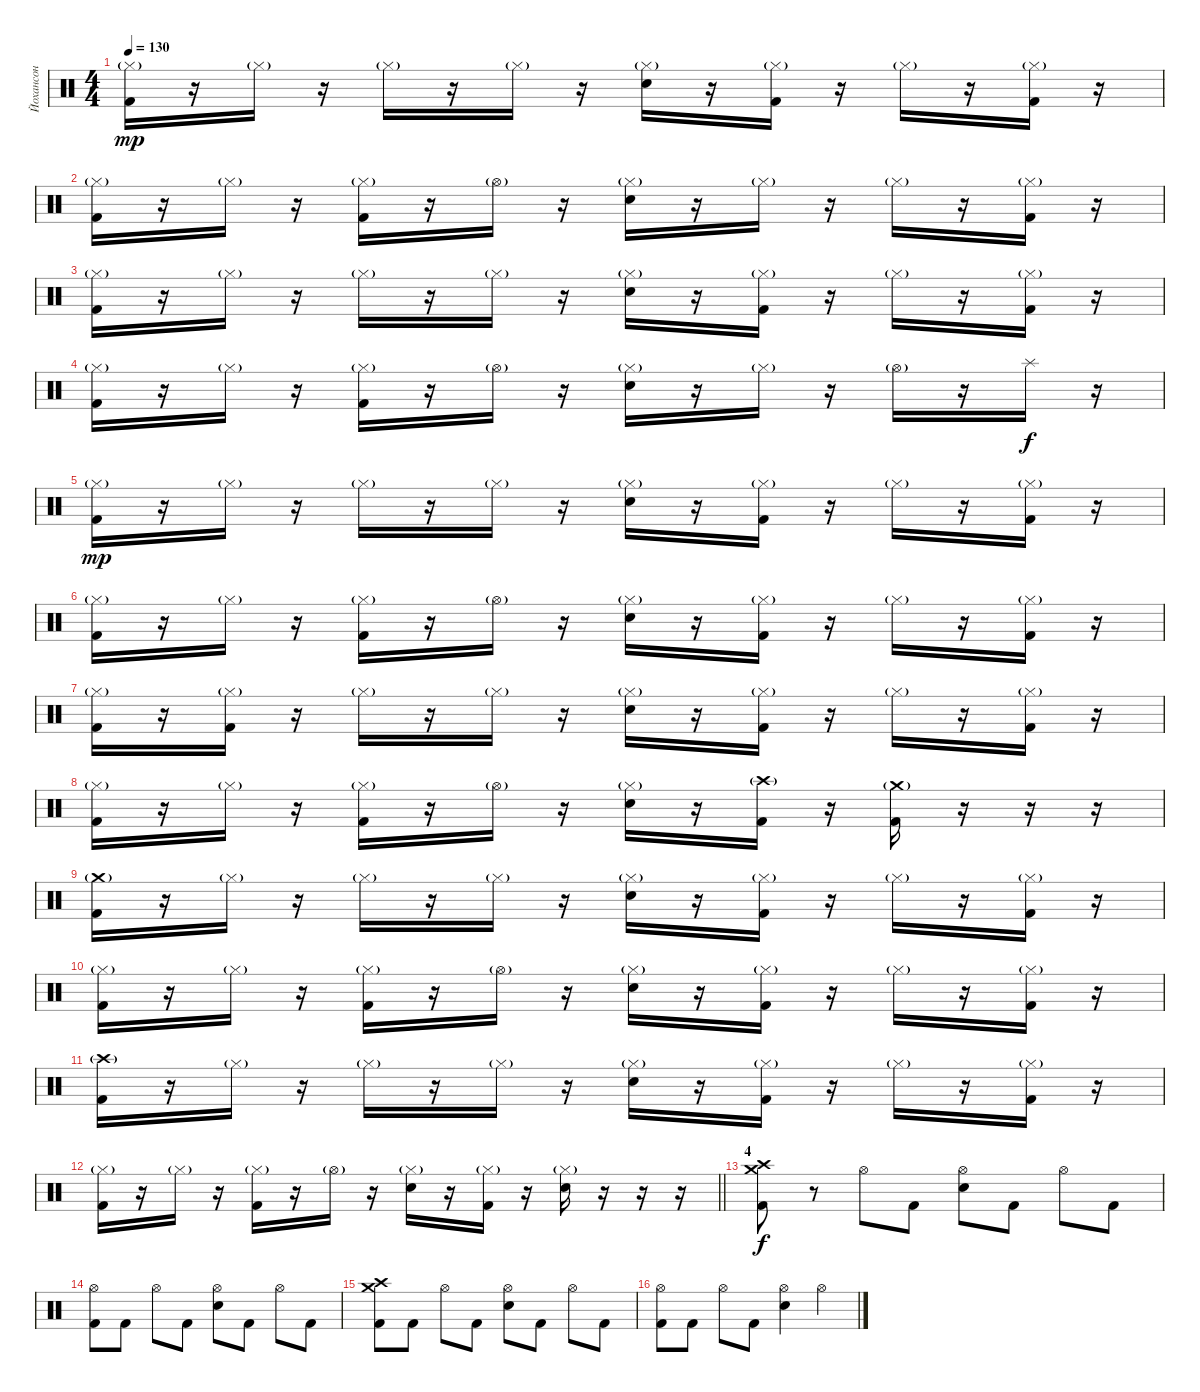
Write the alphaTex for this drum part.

\track ("Йохансон" "Йохансон") {instrument percussion}
\staff {score}
\articulation defaults
\ts (4 4)
\tempo 130
\clef neutral
\ks c
("Hi-Hat (closed)"{g} "Kick (hit) 2").16{dy mp} r.16 "Hi-Hat (closed)"{g}.16 r.16 "Hi-Hat (closed)"{g}.16 r.16 "Hi-Hat (closed)"{g}.16 r.16 ("Hi-Hat (closed)"{g} "Snare (hit) 2").16 r.16 ("Hi-Hat (closed)"{g} "Kick (hit) 2").16 r.16 "Hi-Hat (closed)"{g}.16 r.16 ("Hi-Hat (closed)"{g} "Kick (hit) 2").16 r.16 |
("Hi-Hat (closed)"{g} "Kick (hit) 2").16 r.16 "Hi-Hat (closed)"{g}.16 r.16 ("Hi-Hat (closed)"{g} "Kick (hit) 2").16 r.16 "Hi-Hat (open)"{g}.16 r.16 ("Hi-Hat (closed)"{g} "Snare (hit) 2").16 r.16 "Hi-Hat (closed)"{g}.16 r.16 "Hi-Hat (closed)"{g}.16 r.16 ("Hi-Hat (closed)"{g} "Kick (hit) 2").16 r.16 |
("Hi-Hat (closed)"{g} "Kick (hit) 2").16 r.16 "Hi-Hat (closed)"{g}.16 r.16 "Hi-Hat (closed)"{g}.16 r.16 "Hi-Hat (closed)"{g}.16 r.16 ("Hi-Hat (closed)"{g} "Snare (hit) 2").16 r.16 ("Hi-Hat (closed)"{g} "Kick (hit) 2").16 r.16 "Hi-Hat (closed)"{g}.16 r.16 ("Hi-Hat (closed)"{g} "Kick (hit) 2").16 r.16 |
("Hi-Hat (closed)"{g} "Kick (hit) 2").16 r.16 "Hi-Hat (closed)"{g}.16 r.16 ("Hi-Hat (closed)"{g} "Kick (hit) 2").16 r.16 "Hi-Hat (open)"{g}.16 r.16 ("Hi-Hat (closed)"{g} "Snare (hit) 2").16 r.16 "Hi-Hat (closed)"{g}.16 r.16 "Hi-Hat (open)"{g}.16 r.16 "Splash (hit)".16{dy f} r.16 |
("Hi-Hat (closed)"{g} "Kick (hit) 2").16{dy mp} r.16 "Hi-Hat (closed)"{g}.16 r.16 "Hi-Hat (closed)"{g}.16 r.16 "Hi-Hat (closed)"{g}.16 r.16 ("Hi-Hat (closed)"{g} "Snare (hit) 2").16 r.16 ("Hi-Hat (closed)"{g} "Kick (hit) 2").16 r.16 "Hi-Hat (closed)"{g}.16 r.16 ("Hi-Hat (closed)"{g} "Kick (hit) 2").16 r.16 |
("Hi-Hat (closed)"{g} "Kick (hit) 2").16 r.16 "Hi-Hat (closed)"{g}.16 r.16 ("Hi-Hat (closed)"{g} "Kick (hit) 2").16 r.16 "Hi-Hat (open)"{g}.16 r.16 ("Hi-Hat (closed)"{g} "Snare (hit) 2").16 r.16 ("Hi-Hat (closed)"{g} "Kick (hit) 2").16 r.16 "Hi-Hat (closed)"{g}.16 r.16 ("Hi-Hat (closed)"{g} "Kick (hit) 2").16 r.16 |
("Hi-Hat (closed)"{g} "Kick (hit) 2").16 r.16 ("Hi-Hat (closed)"{g} "Kick (hit) 2").16 r.16 "Hi-Hat (closed)"{g}.16 r.16 "Hi-Hat (closed)"{g}.16 r.16 ("Hi-Hat (closed)"{g} "Snare (hit) 2").16 r.16 ("Hi-Hat (closed)"{g} "Kick (hit) 2").16 r.16 "Hi-Hat (closed)"{g}.16 r.16 ("Hi-Hat (closed)"{g} "Kick (hit) 2").16 r.16 |
("Hi-Hat (closed)"{g} "Kick (hit) 2").16 r.16 "Hi-Hat (closed)"{g}.16 r.16 ("Hi-Hat (closed)"{g} "Kick (hit) 2").16 r.16 "Hi-Hat (open)"{g}.16 r.16 ("Hi-Hat (closed)"{g} "Snare (hit) 2").16 r.16 ("Crash high (hit)"{g} "Kick (hit) 2").16 r.16 ("Crash medium (hit)"{g} "Kick (hit) 2").16 r.16 r.16 r.16 |
("Crash medium (hit)"{g} "Kick (hit) 2").16 r.16 "Hi-Hat (closed)"{g}.16 r.16 "Hi-Hat (closed)"{g}.16 r.16 "Hi-Hat (closed)"{g}.16 r.16 ("Hi-Hat (closed)"{g} "Snare (hit) 2").16 r.16 ("Hi-Hat (closed)"{g} "Kick (hit) 2").16 r.16 "Hi-Hat (closed)"{g}.16 r.16 ("Hi-Hat (closed)"{g} "Kick (hit) 2").16 r.16 |
("Hi-Hat (closed)"{g} "Kick (hit) 2").16 r.16 "Hi-Hat (closed)"{g}.16 r.16 ("Hi-Hat (closed)"{g} "Kick (hit) 2").16 r.16 "Hi-Hat (open)"{g}.16 r.16 ("Hi-Hat (closed)"{g} "Snare (hit) 2").16 r.16 ("Hi-Hat (closed)"{g} "Kick (hit) 2").16 r.16 "Hi-Hat (closed)"{g}.16 r.16 ("Hi-Hat (closed)"{g} "Kick (hit) 2").16 r.16 |
("Crash high (hit)"{g} "Kick (hit) 2").16 r.16 "Hi-Hat (closed)"{g}.16 r.16 "Hi-Hat (closed)"{g}.16 r.16 "Hi-Hat (closed)"{g}.16 r.16 ("Hi-Hat (closed)"{g} "Snare (hit) 2").16 r.16 ("Hi-Hat (closed)"{g} "Kick (hit) 2").16 r.16 "Hi-Hat (closed)"{g}.16 r.16 ("Hi-Hat (closed)"{g} "Kick (hit) 2").16 r.16 |
\barLineRight lightlight
("Hi-Hat (closed)"{g} "Kick (hit) 2").16 r.16 "Hi-Hat (closed)"{g}.16 r.16 ("Hi-Hat (closed)"{g} "Kick (hit) 2").16 r.16 "Hi-Hat (open)"{g}.16 r.16 ("Hi-Hat (closed)"{g} "Snare (hit) 2").16 r.16 ("Hi-Hat (closed)"{g} "Kick (hit) 2").16 r.16 ("Hi-Hat (closed)"{g} "Snare (hit) 2").16 r.16 r.16 r.16 |
\section ("" "4")
("Crash medium (hit)" "Crash high (hit)" "Kick (hit) 2").8{dy f} r.8 "Hi-Hat (open)".8 "Kick (hit) 2".8 ("Hi-Hat (open)" "Snare (hit) 2").8 "Kick (hit) 2".8 "Hi-Hat (open)".8 "Kick (hit) 2".8 |
("Hi-Hat (open)" "Kick (hit) 2").8 "Kick (hit) 2".8 "Hi-Hat (open)".8 "Kick (hit) 2".8 ("Hi-Hat (open)" "Snare (hit) 2").8 "Kick (hit) 2".8 "Hi-Hat (open)".8 "Kick (hit) 2".8 |
("Crash medium (hit)" "Crash high (hit)" "Kick (hit) 2").8 "Kick (hit) 2".8 "Hi-Hat (open)".8 "Kick (hit) 2".8 ("Hi-Hat (open)" "Snare (hit) 2").8 "Kick (hit) 2".8 "Hi-Hat (open)".8 "Kick (hit) 2".8 |
("Hi-Hat (open)" "Kick (hit) 2").8 "Kick (hit) 2".8 "Hi-Hat (open)".8 "Kick (hit) 2".8 ("Hi-Hat (open)" "Snare (hit) 2").4 "Hi-Hat (open)".4
